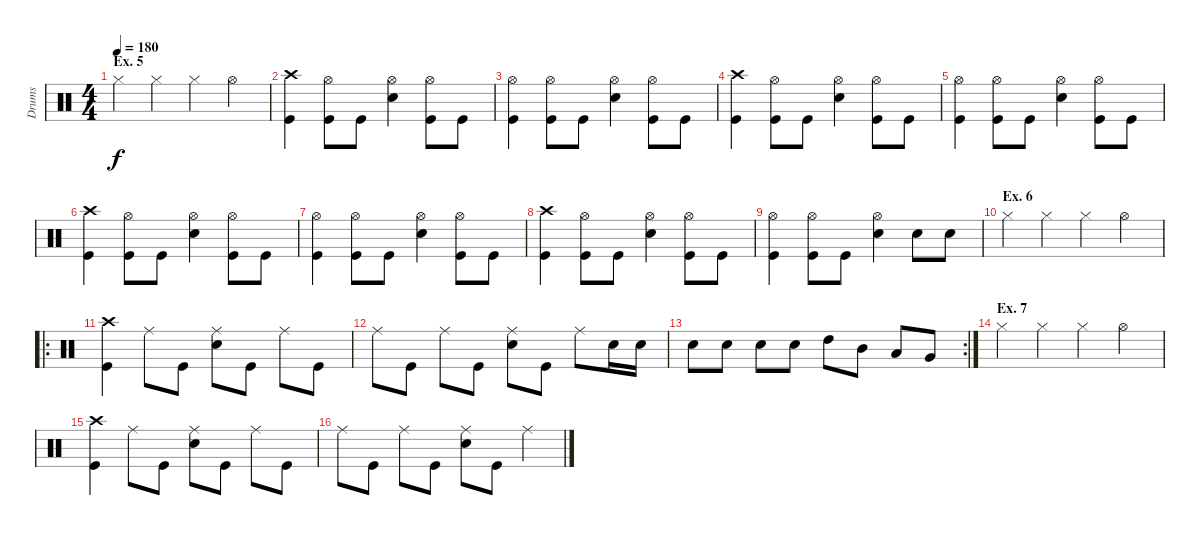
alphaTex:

\track ("Drums" "Drums") {instrument percussion}
\staff {score}
\articulation defaults
\ts (4 4)
\section ("" "Ex. 5")
\tempo 180
\clef neutral
\ks c "Hi-Hat (closed)".4{dy f} "Hi-Hat (closed)".4 "Hi-Hat (closed)".4 "Hi-Hat (open)".4
|
("Crash high (hit)" "Kick (hit)").4 ("Hi-Hat (open)" "Kick (hit)").8 "Kick (hit)".8 ("Hi-Hat (open)" "Snare (hit) 2").4 ("Hi-Hat (open)" "Kick (hit)").8 "Kick (hit)".8 |
("Hi-Hat (open)" "Kick (hit)").4 ("Hi-Hat (open)" "Kick (hit)").8 "Kick (hit)".8 ("Hi-Hat (open)" "Snare (hit) 2").4 ("Hi-Hat (open)" "Kick (hit)").8 "Kick (hit)".8 |
("Crash high (hit)" "Kick (hit)").4 ("Hi-Hat (open)" "Kick (hit)").8 "Kick (hit)".8 ("Hi-Hat (open)" "Snare (hit) 2").4 ("Hi-Hat (open)" "Kick (hit)").8 "Kick (hit)".8 |
("Hi-Hat (open)" "Kick (hit)").4 ("Hi-Hat (open)" "Kick (hit)").8 "Kick (hit)".8 ("Hi-Hat (open)" "Snare (hit) 2").4 ("Hi-Hat (open)" "Kick (hit)").8 "Kick (hit)".8 |
("Crash high (hit)" "Kick (hit)").4 ("Hi-Hat (open)" "Kick (hit)").8 "Kick (hit)".8 ("Hi-Hat (open)" "Snare (hit) 2").4 ("Hi-Hat (open)" "Kick (hit)").8 "Kick (hit)".8 |
("Hi-Hat (open)" "Kick (hit)").4 ("Hi-Hat (open)" "Kick (hit)").8 "Kick (hit)".8 ("Hi-Hat (open)" "Snare (hit) 2").4 ("Hi-Hat (open)" "Kick (hit)").8 "Kick (hit)".8 |
("Crash high (hit)" "Kick (hit)").4 ("Hi-Hat (open)" "Kick (hit)").8 "Kick (hit)".8 ("Hi-Hat (open)" "Snare (hit) 2").4 ("Hi-Hat (open)" "Kick (hit)").8 "Kick (hit)".8 |
("Hi-Hat (open)" "Kick (hit)").4 ("Hi-Hat (open)" "Kick (hit)").8 "Kick (hit)".8 ("Hi-Hat (open)" "Snare (hit) 2").4 "Snare (hit) 2".8 "Snare (hit) 2".8 |
\section ("" "Ex. 6")
"Hi-Hat (closed)".4 "Hi-Hat (closed)".4 "Hi-Hat (closed)".4 "Hi-Hat (open)".4 |
\ro
("Crash high (hit)" "Kick (hit)").4 "Ride (middle)".8 "Kick (hit)".8 ("Ride (middle)" "Snare (hit) 2").8 "Kick (hit)".8 "Ride (middle)".8 "Kick (hit)".8 |
"Ride (middle)".8 "Kick (hit)".8 "Ride (middle)".8 "Kick (hit)".8 ("Ride (middle)" "Snare (hit) 2").8 "Kick (hit)".8 "Ride (middle)".8 "Snare (hit) 2".16 "Snare (hit) 2".16 |
\rc 2 "Snare (hit) 2".8 "Snare (hit) 2".8 "Snare (hit) 2".8 "Snare (hit) 2".8 "High Tom (hit)".8 "Mid Tom (hit)".8 "Low Tom (hit)".8 "Very Low Tom (hit)".8
|
\section ("" "Ex. 7")
"Hi-Hat (closed)".4 "Hi-Hat (closed)".4 "Hi-Hat (closed)".4 "Hi-Hat (open)".4 |
("Crash high (hit)" "Kick (hit)").4 "Ride (middle)".8 "Kick (hit)".8 ("Ride (middle)" "Snare (hit) 2").8 "Kick (hit)".8 "Ride (middle)".8 "Kick (hit)".8 |
"Ride (middle)".8 "Kick (hit)".8 "Ride (middle)".8 "Kick (hit)".8 ("Ride (middle)" "Snare (hit) 2").8 "Kick (hit)".8 "Ride (middle)".4
